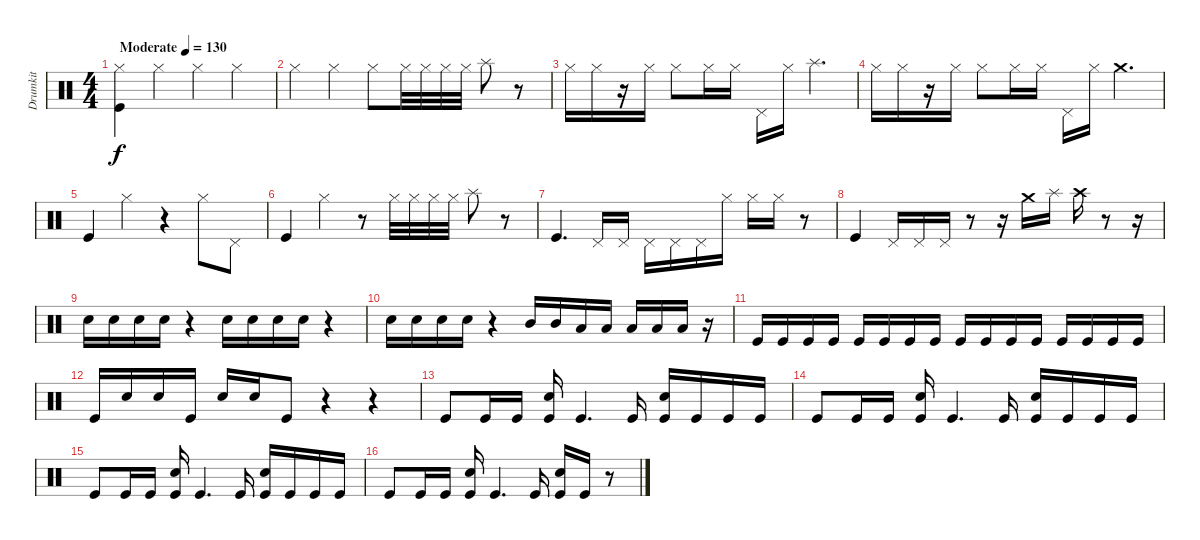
\track ("Drumkit" "Drumkit") {instrument percussion}
\staff {score}
\articulation defaults
\ts (4 4)
\tempo (130 "Moderate")
\clef neutral
\ks c
("Hi-Hat (closed)" "Kick (hit)").4{dy f} "Hi-Hat (closed)".4 "Hi-Hat (closed)".4 "Hi-Hat (closed)".4 |
"Hi-Hat (closed)".4 "Hi-Hat (closed)".4 "Hi-Hat (closed)".8 "Hi-Hat (closed)".32 "Hi-Hat (closed)".32 "Hi-Hat (closed)".32 "Hi-Hat (closed)".32 "Splash (hit)".8 r.8 |
"Hi-Hat (closed)".16 "Hi-Hat (closed)".16 r.16 "Hi-Hat (closed)".16 "Hi-Hat (closed)".8 "Hi-Hat (closed)".16 "Hi-Hat (closed)".16 "Pedal Hi-Hat (hit)".16 "Hi-Hat (closed)".16 "Splash (hit)".4{d} |
"Hi-Hat (closed)".16 "Hi-Hat (closed)".16 r.16 "Hi-Hat (closed)".16 "Hi-Hat (closed)".8 "Hi-Hat (closed)".16 "Hi-Hat (closed)".16 "Pedal Hi-Hat (hit)".16 "Hi-Hat (closed)".16 "Crash medium (hit)".4{d} |
"Kick (hit)".4 "Hi-Hat (closed)".4 r.4 "Hi-Hat (closed)".8 "Pedal Hi-Hat (hit)".8 |
"Kick (hit)".4 "Hi-Hat (closed)".4 r.8 "Hi-Hat (closed)".32 "Hi-Hat (closed)".32 "Hi-Hat (closed)".32 "Hi-Hat (closed)".32 "Splash (hit)".8 r.8 |
"Kick (hit)".4{d} "Pedal Hi-Hat (hit)".16 "Pedal Hi-Hat (hit)".16 "Pedal Hi-Hat (hit)".16 "Pedal Hi-Hat (hit)".16 "Pedal Hi-Hat (hit)".16 "Hi-Hat (closed)".16 "Hi-Hat (closed)".16 "Hi-Hat (closed)".16 r.8 |
"Kick (hit)".4 "Pedal Hi-Hat (hit)".16 "Pedal Hi-Hat (hit)".16 "Pedal Hi-Hat (hit)".16 r.8 r.16 "Crash medium (hit)".16 "Splash (hit)".16 "Crash high (hit)".16 r.8 r.16 |
"Snare (hit) 2".16 "Snare (hit) 2".16 "Snare (hit) 2".16 "Snare (hit) 2".16 r.4 "Snare (hit) 2".16 "Snare (hit) 2".16 "Snare (hit) 2".16 "Snare (hit) 2".16 r.4 |
"Snare (hit) 2".16 "Snare (hit) 2".16 "Snare (hit) 2".16 "Snare (hit) 2".16 r.4 "Mid Tom (hit)".16 "Mid Tom (hit)".16 "Low Tom (hit)".16 "Low Tom (hit)".16 "Low Tom (hit)".16 "Low Tom (hit)".16 "Low Tom (hit)".16 r.16 |
"Kick (hit)".16 "Kick (hit)".16 "Kick (hit)".16 "Kick (hit)".16 "Kick (hit)".16 "Kick (hit)".16 "Kick (hit)".16 "Kick (hit)".16 "Kick (hit)".16 "Kick (hit)".16 "Kick (hit)".16 "Kick (hit)".16 "Kick (hit)".16 "Kick (hit)".16 "Kick (hit)".16 "Kick (hit)".16 |
"Kick (hit)".16 "Snare (hit) 2".16 "Snare (hit) 2".16 "Kick (hit)".16 "Snare (hit) 2".16 "Snare (hit) 2".16 "Kick (hit)".8 r.4 r.4 |
"Kick (hit)".8 "Kick (hit)".16 "Kick (hit)".16 ("Snare (hit) 2" "Kick (hit)").16 "Kick (hit)".4{d} "Kick (hit)".16 ("Snare (hit) 2" "Kick (hit)").16 "Kick (hit)".16 "Kick (hit)".16 "Kick (hit)".16 |
"Kick (hit)".8 "Kick (hit)".16 "Kick (hit)".16 ("Snare (hit) 2" "Kick (hit)").16 "Kick (hit)".4{d} "Kick (hit)".16 ("Snare (hit) 2" "Kick (hit)").16 "Kick (hit)".16 "Kick (hit)".16 "Kick (hit)".16 |
"Kick (hit)".8 "Kick (hit)".16 "Kick (hit)".16 ("Snare (hit) 2" "Kick (hit)").16 "Kick (hit)".4{d} "Kick (hit)".16 ("Snare (hit) 2" "Kick (hit)").16 "Kick (hit)".16 "Kick (hit)".16 "Kick (hit)".16 |
"Kick (hit)".8 "Kick (hit)".16 "Kick (hit)".16 ("Snare (hit) 2" "Kick (hit)").16 "Kick (hit)".4{d} "Kick (hit)".16 ("Snare (hit) 2" "Kick (hit)").16 "Kick (hit)".16 r.8
